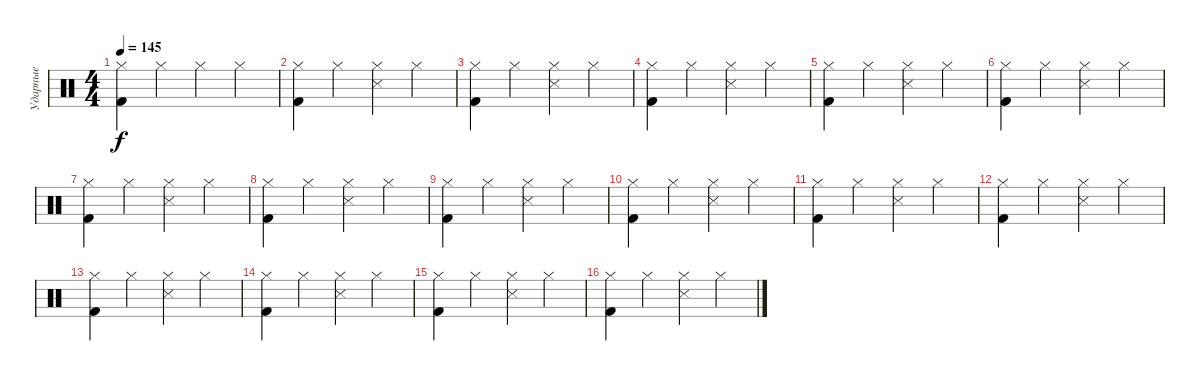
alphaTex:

\track ("Ударные" "Ударные") {instrument percussion}
\staff {score}
\articulation defaults
\ts (4 4)
\tempo 145
\clef neutral
\ks c
("Kick (hit) 2" "Hi-Hat (closed)").4{dy f} "Hi-Hat (closed)".4 "Hi-Hat (closed)".4 "Hi-Hat (closed)".4 |
("Kick (hit) 2" "Hi-Hat (closed)").4 "Hi-Hat (closed)".4 ("Hi-Hat (closed)" "Snare (side stick) 3").4 "Hi-Hat (closed)".4 |
("Kick (hit) 2" "Hi-Hat (closed)").4 "Hi-Hat (closed)".4 ("Snare (side stick) 3" "Hi-Hat (closed)").4 "Hi-Hat (closed)".4 |
("Kick (hit) 2" "Hi-Hat (closed)").4 "Hi-Hat (closed)".4 ("Snare (side stick) 3" "Hi-Hat (closed)").4 "Hi-Hat (closed)".4 |
("Kick (hit) 2" "Hi-Hat (closed)").4 "Hi-Hat (closed)".4 ("Hi-Hat (closed)" "Snare (side stick) 3").4 "Hi-Hat (closed)".4 |
("Kick (hit) 2" "Hi-Hat (closed)").4 "Hi-Hat (closed)".4 ("Hi-Hat (closed)" "Snare (side stick) 3").4 "Hi-Hat (closed)".4 |
("Kick (hit) 2" "Hi-Hat (closed)").4 "Hi-Hat (closed)".4 ("Hi-Hat (closed)" "Snare (side stick) 3").4 "Hi-Hat (closed)".4 |
("Kick (hit) 2" "Hi-Hat (closed)").4 "Hi-Hat (closed)".4 ("Snare (side stick) 3" "Hi-Hat (closed)").4 "Hi-Hat (closed)".4 |
("Kick (hit) 2" "Hi-Hat (closed)").4 "Hi-Hat (closed)".4 ("Snare (side stick) 3" "Hi-Hat (closed)").4 "Hi-Hat (closed)".4 |
("Hi-Hat (closed)" "Kick (hit) 2").4 "Hi-Hat (closed)".4 ("Snare (side stick) 3" "Hi-Hat (closed)").4 "Hi-Hat (closed)".4 |
("Kick (hit) 2" "Hi-Hat (closed)").4 "Hi-Hat (closed)".4 ("Hi-Hat (closed)" "Snare (side stick) 3").4 "Hi-Hat (closed)".4 |
("Hi-Hat (closed)" "Kick (hit) 2").4 "Hi-Hat (closed)".4 ("Snare (side stick) 3" "Hi-Hat (closed)").4 "Hi-Hat (closed)".4 |
("Kick (hit) 2" "Hi-Hat (closed)").4 "Hi-Hat (closed)".4 ("Hi-Hat (closed)" "Snare (side stick) 3").4 "Hi-Hat (closed)".4 |
("Hi-Hat (closed)" "Kick (hit) 2").4 "Hi-Hat (closed)".4 ("Hi-Hat (closed)" "Snare (side stick) 3").4 "Hi-Hat (closed)".4 |
("Hi-Hat (closed)" "Kick (hit) 2").4 "Hi-Hat (closed)".4 ("Snare (side stick) 3" "Hi-Hat (closed)").4 "Hi-Hat (closed)".4 |
("Hi-Hat (closed)" "Kick (hit) 2").4 "Hi-Hat (closed)".4 ("Snare (side stick) 3" "Hi-Hat (closed)").4 "Hi-Hat (closed)".4
